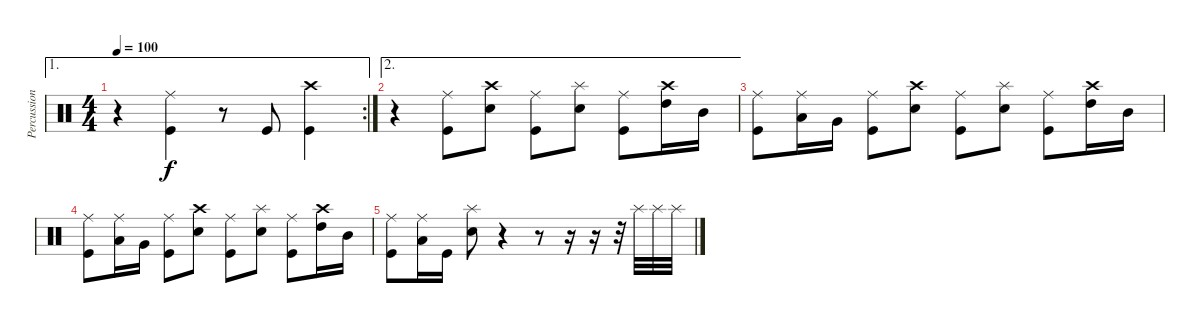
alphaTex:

\track ("Percussions" "Percussion") {instrument percussion}
\staff {score}
\articulation defaults
\ae 1
\rc 2
\ts (4 4)
\tempo 100
\clef neutral
\ks c
r.4{dy f} ("Ride (middle)" "Kick (hit)").4 r.8 "Kick (hit)".8 ("Crash high (hit)" "Kick (hit)").4 |
\ae 2
r.4 ("Ride (middle)" "Kick (hit)").8 ("Crash high (hit)" "Snare (hit) 2").8 ("Ride (middle)" "Kick (hit)").8 ("Splash (hit)" "Snare (hit) 2").8 ("Ride (middle)" "Kick (hit)").8 ("Crash high (hit)" "High Tom (hit)").16 "Mid Tom (hit)".16 |
("Ride (middle)" "Kick (hit)").8 ("Ride (middle)" "Low Tom (hit)").16 "Very Low Tom (hit)".16 ("Ride (middle)" "Kick (hit)").8 ("Crash high (hit)" "Snare (hit) 2").8 ("Ride (middle)" "Kick (hit)").8 ("Splash (hit)" "Snare (hit) 2").8 ("Ride (middle)" "Kick (hit)").8 ("Crash high (hit)" "High Tom (hit)").16 "Mid Tom (hit)".16 |
("Ride (middle)" "Kick (hit)").8 ("Ride (middle)" "Low Tom (hit)").16 "Very Low Tom (hit)".16 ("Ride (middle)" "Kick (hit)").8 ("Crash high (hit)" "Snare (hit) 2").8 ("Ride (middle)" "Kick (hit)").8 ("Splash (hit)" "Snare (hit) 2").8 ("Ride (middle)" "Kick (hit)").8 ("Crash high (hit)" "High Tom (hit)").16 "Mid Tom (hit)".16 |
("Ride (middle)" "Kick (hit)").8 ("Ride (middle)" "Low Tom (hit)").16 "Kick (hit)".16 ("Splash (hit)" "Snare (hit) 2").8 r.4 r.8 r.16 r.16 r.32 "Splash (hit)".32 "Splash (hit)".32 "Splash (hit)".32
